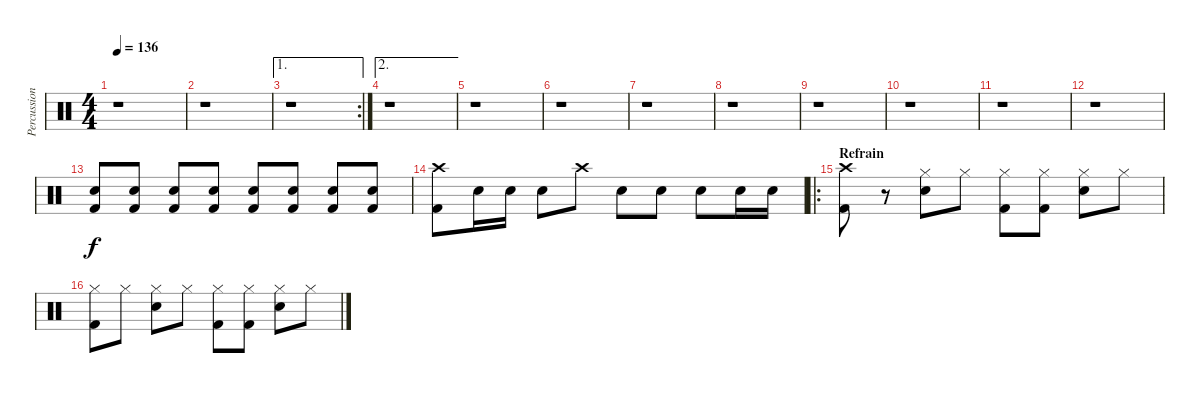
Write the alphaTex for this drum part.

\track ("Percussions" "Percussion") {instrument percussion}
\staff {score}
\articulation defaults
\ts (4 4)
\tempo 136
\clef neutral
\ks c
r.1{dy f} |
r.1 |
\ae 1
\rc 2
r.1 |
\ae 2
r.1 |
r.1 |
r.1 |
r.1 |
r.1 |
r.1 |
r.1 |
r.1 |
r.1 |
("Snare (hit) 2" "Kick (hit) 2").8{volume 7} ("Snare (hit) 2" "Kick (hit) 2").8{volume 13} ("Snare (hit) 2" "Kick (hit) 2").8 ("Snare (hit) 2" "Kick (hit) 2").8 ("Snare (hit) 2" "Kick (hit) 2").8 ("Snare (hit) 2" "Kick (hit) 2").8 ("Snare (hit) 2" "Kick (hit) 2").8 ("Snare (hit) 2" "Kick (hit) 2").8 |
("Crash high (hit)" "Kick (hit) 2").8 "Snare (hit) 2".16 "Snare (hit) 2".16 "Snare (hit) 2".8 "Crash high (hit)".8 "Electric Snare (hit)".8 "Electric Snare (hit)".8 "Electric Snare (hit)".8 "Electric Snare (hit)".16 "Electric Snare (hit)".16 |
\ro
\section ("" "Refrain")
("Crash high (hit)" "Kick (hit) 2").8 r.8 ("Hi-Hat (closed)" "Electric Snare (hit)").8 "Hi-Hat (closed)".8 ("Hi-Hat (closed)" "Kick (hit) 2").8 ("Hi-Hat (closed)" "Kick (hit) 2").8 ("Hi-Hat (closed)" "Electric Snare (hit)").8 "Hi-Hat (closed)".8 |
("Hi-Hat (closed)" "Kick (hit) 2").8 "Hi-Hat (closed)".8 ("Hi-Hat (closed)" "Electric Snare (hit)").8 "Hi-Hat (closed)".8 ("Hi-Hat (closed)" "Kick (hit) 2").8 ("Hi-Hat (closed)" "Kick (hit) 2").8 ("Hi-Hat (closed)" "Electric Snare (hit)").8 "Hi-Hat (closed)".8
